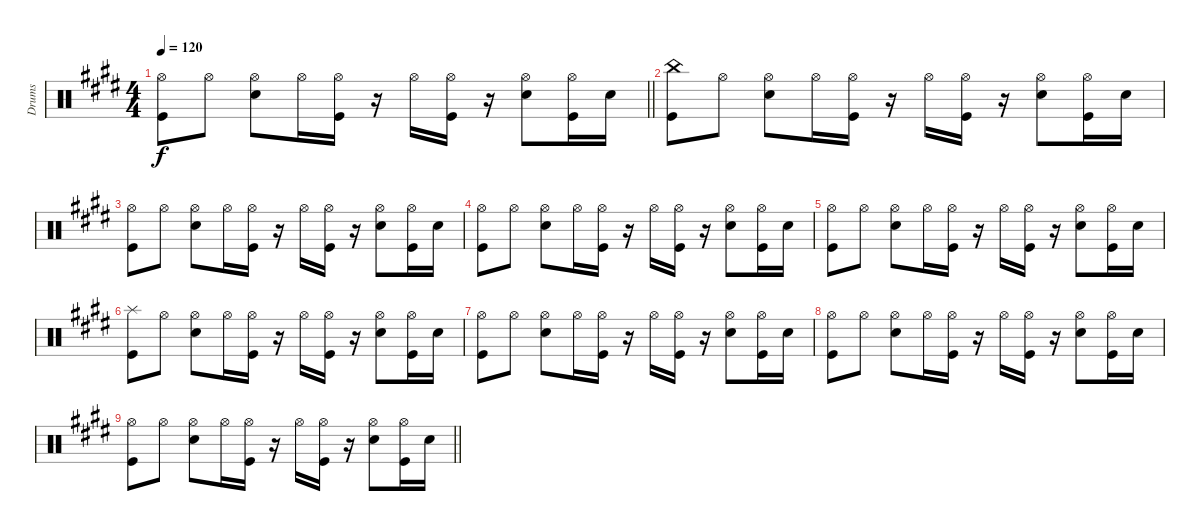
\track ("Drums" "Drums") {instrument percussion}
\staff {score}
\articulation defaults
\ts (4 4)
\tempo 120
\clef neutral
\barLineRight lightlight
\ks c#minor
("Hi-Hat (open)" "Kick (hit)").8{dy f} "Hi-Hat (open)".8 ("Hi-Hat (open)" "Snare (hit) 2").8 "Hi-Hat (open)".16 ("Hi-Hat (open)" "Kick (hit)").16 r.16 "Hi-Hat (open)".16 ("Hi-Hat (open)" "Kick (hit)").16 r.16 ("Hi-Hat (open)" "Snare (hit) 2").8 ("Hi-Hat (open)" "Kick (hit)").16 "Snare (hit) 2".16 |
("China (hit)" "Kick (hit)").8 "Hi-Hat (open)".8 ("Hi-Hat (open)" "Snare (hit) 2").8 "Hi-Hat (open)".16 ("Hi-Hat (open)" "Kick (hit)").16 r.16 "Hi-Hat (open)".16 ("Hi-Hat (open)" "Kick (hit)").16 r.16 ("Hi-Hat (open)" "Snare (hit) 2").8 ("Hi-Hat (open)" "Kick (hit)").16 "Snare (hit) 2".16 |
("Hi-Hat (open)" "Kick (hit)").8 "Hi-Hat (open)".8 ("Hi-Hat (open)" "Snare (hit) 2").8 "Hi-Hat (open)".16 ("Hi-Hat (open)" "Kick (hit)").16 r.16 "Hi-Hat (open)".16 ("Hi-Hat (open)" "Kick (hit)").16 r.16 ("Hi-Hat (open)" "Snare (hit) 2").8 ("Hi-Hat (open)" "Kick (hit)").16 "Snare (hit) 2".16 |
\ks e
("Hi-Hat (open)" "Kick (hit)").8 "Hi-Hat (open)".8 ("Hi-Hat (open)" "Snare (hit) 2").8 "Hi-Hat (open)".16 ("Hi-Hat (open)" "Kick (hit)").16 r.16 "Hi-Hat (open)".16 ("Hi-Hat (open)" "Kick (hit)").16 r.16 ("Hi-Hat (open)" "Snare (hit) 2").8 ("Hi-Hat (open)" "Kick (hit)").16 "Snare (hit) 2".16 |
\ks c#minor
("Hi-Hat (open)" "Kick (hit)").8 "Hi-Hat (open)".8 ("Hi-Hat (open)" "Snare (hit) 2").8 "Hi-Hat (open)".16 ("Hi-Hat (open)" "Kick (hit)").16 r.16 "Hi-Hat (open)".16 ("Hi-Hat (open)" "Kick (hit)").16 r.16 ("Hi-Hat (open)" "Snare (hit) 2").8 ("Hi-Hat (open)" "Kick (hit)").16 "Snare (hit) 2".16 |
("Splash (hit)" "Kick (hit)").8 "Hi-Hat (open)".8 ("Hi-Hat (open)" "Snare (hit) 2").8 "Hi-Hat (open)".16 ("Hi-Hat (open)" "Kick (hit)").16 r.16 "Hi-Hat (open)".16 ("Hi-Hat (open)" "Kick (hit)").16 r.16 ("Hi-Hat (open)" "Snare (hit) 2").8 ("Hi-Hat (open)" "Kick (hit)").16 "Snare (hit) 2".16 |
("Hi-Hat (open)" "Kick (hit)").8 "Hi-Hat (open)".8 ("Hi-Hat (open)" "Snare (hit) 2").8 "Hi-Hat (open)".16 ("Hi-Hat (open)" "Kick (hit)").16 r.16 "Hi-Hat (open)".16 ("Hi-Hat (open)" "Kick (hit)").16 r.16 ("Hi-Hat (open)" "Snare (hit) 2").8 ("Hi-Hat (open)" "Kick (hit)").16 "Snare (hit) 2".16 |
\ks e
("Hi-Hat (open)" "Kick (hit)").8 "Hi-Hat (open)".8 ("Hi-Hat (open)" "Snare (hit) 2").8 "Hi-Hat (open)".16 ("Hi-Hat (open)" "Kick (hit)").16 r.16 "Hi-Hat (open)".16 ("Hi-Hat (open)" "Kick (hit)").16 r.16 ("Hi-Hat (open)" "Snare (hit) 2").8 ("Hi-Hat (open)" "Kick (hit)").16 "Snare (hit) 2".16 |
\barLineRight lightlight
\ks c#minor
("Hi-Hat (open)" "Kick (hit)").8 "Hi-Hat (open)".8 ("Hi-Hat (open)" "Snare (hit) 2").8 "Hi-Hat (open)".16 ("Hi-Hat (open)" "Kick (hit)").16 r.16 "Hi-Hat (open)".16 ("Hi-Hat (open)" "Kick (hit)").16 r.16 ("Hi-Hat (open)" "Snare (hit) 2").8 ("Hi-Hat (open)" "Kick (hit)").16 "Snare (hit) 2".16
